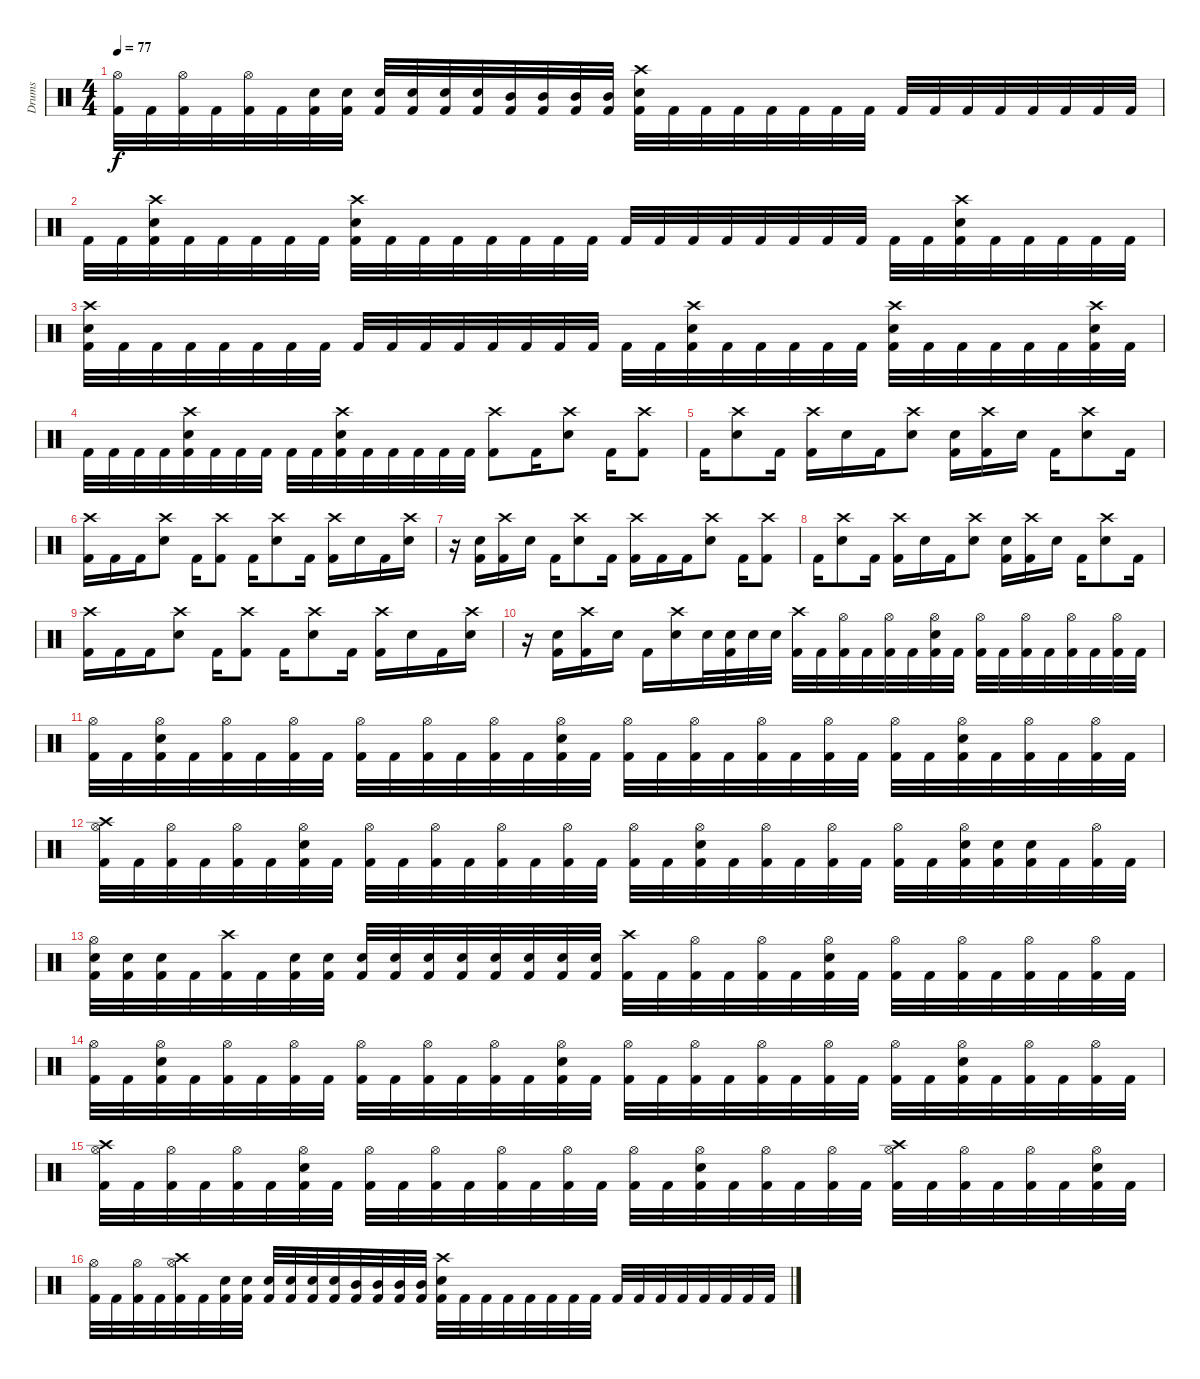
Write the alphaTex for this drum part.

\track ("Drums" "Drums") {instrument percussion}
\staff {score}
\articulation defaults
\ts (4 4)
\tempo 77
\clef neutral
\ks c
("Hi-Hat (open)" "Kick (hit) 2").32{dy f} "Kick (hit) 2".32 ("Hi-Hat (open)" "Kick (hit) 2").32 "Kick (hit) 2".32 ("Hi-Hat (open)" "Kick (hit) 2").32 "Kick (hit) 2".32 ("Snare (hit) 2" "Kick (hit) 2").32 ("Snare (hit) 2" "Kick (hit) 2").32 ("Snare (hit) 2" "Kick (hit) 2").32 ("Snare (hit) 2" "Kick (hit) 2").32 ("Snare (hit) 2" "Kick (hit) 2").32 ("Snare (hit) 2" "Kick (hit) 2").32 ("Mid Tom (hit)" "Kick (hit) 2").32 ("Mid Tom (hit)" "Kick (hit) 2").32 ("Mid Tom (hit)" "Kick (hit) 2").32 ("Mid Tom (hit)" "Kick (hit) 2").32 ("Crash high (hit)" "Snare (hit) 2" "Kick (hit) 2").32 "Kick (hit) 2".32 "Kick (hit) 2".32 "Kick (hit) 2".32 "Kick (hit) 2".32 "Kick (hit) 2".32 "Kick (hit) 2".32 "Kick (hit) 2".32 "Kick (hit) 2".32 "Kick (hit) 2".32 "Kick (hit) 2".32 "Kick (hit) 2".32 "Kick (hit) 2".32 "Kick (hit) 2".32 "Kick (hit) 2".32 "Kick (hit) 2".32 |
"Kick (hit) 2".32 "Kick (hit) 2".32 ("Crash high (hit)" "Snare (hit) 2" "Kick (hit) 2").32 "Kick (hit) 2".32 "Kick (hit) 2".32 "Kick (hit) 2".32 "Kick (hit) 2".32 "Kick (hit) 2".32 ("Crash high (hit)" "Snare (hit) 2" "Kick (hit) 2").32 "Kick (hit) 2".32 "Kick (hit) 2".32 "Kick (hit) 2".32 "Kick (hit) 2".32 "Kick (hit) 2".32 "Kick (hit) 2".32 "Kick (hit) 2".32 "Kick (hit) 2".32 "Kick (hit) 2".32 "Kick (hit) 2".32 "Kick (hit) 2".32 "Kick (hit) 2".32 "Kick (hit) 2".32 "Kick (hit) 2".32 "Kick (hit) 2".32 "Kick (hit) 2".32 "Kick (hit) 2".32 ("Crash high (hit)" "Snare (hit) 2" "Kick (hit) 2").32 "Kick (hit) 2".32 "Kick (hit) 2".32 "Kick (hit) 2".32 "Kick (hit) 2".32 "Kick (hit) 2".32 |
("Crash high (hit)" "Snare (hit) 2" "Kick (hit) 2").32 "Kick (hit) 2".32 "Kick (hit) 2".32 "Kick (hit) 2".32 "Kick (hit) 2".32 "Kick (hit) 2".32 "Kick (hit) 2".32 "Kick (hit) 2".32 "Kick (hit) 2".32 "Kick (hit) 2".32 "Kick (hit) 2".32 "Kick (hit) 2".32 "Kick (hit) 2".32 "Kick (hit) 2".32 "Kick (hit) 2".32 "Kick (hit) 2".32 "Kick (hit) 2".32 "Kick (hit) 2".32 ("Crash high (hit)" "Snare (hit) 2" "Kick (hit) 2").32 "Kick (hit) 2".32 "Kick (hit) 2".32 "Kick (hit) 2".32 "Kick (hit) 2".32 "Kick (hit) 2".32 ("Crash high (hit)" "Snare (hit) 2" "Kick (hit) 2").32 "Kick (hit) 2".32 "Kick (hit) 2".32 "Kick (hit) 2".32 "Kick (hit) 2".32 "Kick (hit) 2".32 ("Crash high (hit)" "Snare (hit) 2" "Kick (hit) 2").32 "Kick (hit) 2".32 |
"Kick (hit) 2".32 "Kick (hit) 2".32 "Kick (hit) 2".32 "Kick (hit) 2".32 ("Crash high (hit)" "Snare (hit) 2" "Kick (hit) 2").32 "Kick (hit) 2".32 "Kick (hit) 2".32 "Kick (hit) 2".32 "Kick (hit) 2".32 "Kick (hit) 2".32 ("Crash high (hit)" "Snare (hit) 2" "Kick (hit) 2").32 "Kick (hit) 2".32 "Kick (hit) 2".32 "Kick (hit) 2".32 "Kick (hit) 2".32 "Kick (hit) 2".32 ("Crash high (hit)" "Kick (hit) 2").8 "Kick (hit) 2".16 ("Crash high (hit)" "Snare (hit) 2").8 "Kick (hit) 2".16 ("Crash high (hit)" "Kick (hit) 2").8 |
"Kick (hit) 2".16 ("Crash high (hit)" "Snare (hit) 2").8 "Kick (hit) 2".16 ("Crash high (hit)" "Kick (hit) 2").16 "Snare (hit) 2".16 "Kick (hit) 2".16 ("Crash high (hit)" "Snare (hit) 2").8 ("Snare (hit) 2" "Kick (hit) 2").16 ("Crash high (hit)" "Kick (hit) 2").16 "Snare (hit) 2".16 "Kick (hit) 2".16 ("Crash high (hit)" "Snare (hit) 2").8 "Kick (hit) 2".16 |
("Crash high (hit)" "Kick (hit) 2").16 "Kick (hit) 2".16 "Kick (hit) 2".16 ("Crash high (hit)" "Snare (hit) 2").8 "Kick (hit) 2".16 ("Crash high (hit)" "Kick (hit) 2").8 "Kick (hit) 2".16 ("Crash high (hit)" "Snare (hit) 2").8 "Kick (hit) 2".16 ("Crash high (hit)" "Kick (hit) 2").16 "Snare (hit) 2".16 "Kick (hit) 2".16 ("Crash high (hit)" "Snare (hit) 2").16 |
r.16 ("Snare (hit) 2" "Kick (hit) 2").16 ("Crash high (hit)" "Kick (hit) 2").16 "Snare (hit) 2".16 "Kick (hit) 2".16 ("Crash high (hit)" "Snare (hit) 2").8 "Kick (hit) 2".16 ("Crash high (hit)" "Kick (hit) 2").16 "Kick (hit) 2".16 "Kick (hit) 2".16 ("Crash high (hit)" "Snare (hit) 2").8 "Kick (hit) 2".16 ("Crash high (hit)" "Kick (hit) 2").8 |
"Kick (hit) 2".16 ("Crash high (hit)" "Snare (hit) 2").8 "Kick (hit) 2".16 ("Crash high (hit)" "Kick (hit) 2").16 "Snare (hit) 2".16 "Kick (hit) 2".16 ("Crash high (hit)" "Snare (hit) 2").8 ("Snare (hit) 2" "Kick (hit) 2").16 ("Crash high (hit)" "Kick (hit) 2").16 "Snare (hit) 2".16 "Kick (hit) 2".16 ("Crash high (hit)" "Snare (hit) 2").8 "Kick (hit) 2".16 |
("Crash high (hit)" "Kick (hit) 2").16 "Kick (hit) 2".16 "Kick (hit) 2".16 ("Crash high (hit)" "Snare (hit) 2").8 "Kick (hit) 2".16 ("Crash high (hit)" "Kick (hit) 2").8 "Kick (hit) 2".16 ("Crash high (hit)" "Snare (hit) 2").8 "Kick (hit) 2".16 ("Crash high (hit)" "Kick (hit) 2").16 "Snare (hit) 2".16 "Kick (hit) 2".16 ("Crash high (hit)" "Snare (hit) 2").16 |
r.16 ("Snare (hit) 2" "Kick (hit) 2").16 ("Crash high (hit)" "Kick (hit) 2").16 "Snare (hit) 2".16 "Kick (hit) 2".16 ("Crash high (hit)" "Snare (hit) 2").16 "Snare (hit) 2".32 ("Snare (hit) 2" "Kick (hit) 2").32 "Snare (hit) 2".32 "Snare (hit) 2".32 ("Crash high (hit)" "Kick (hit) 2").32 "Kick (hit) 2".32 ("Hi-Hat (open)" "Kick (hit) 2").32 "Kick (hit) 2".32 ("Hi-Hat (open)" "Kick (hit) 2").32 "Kick (hit) 2".32 ("Hi-Hat (open)" "Snare (hit) 2" "Kick (hit) 2").32 "Kick (hit) 2".32 ("Hi-Hat (open)" "Kick (hit) 2").32 "Kick (hit) 2".32 ("Hi-Hat (open)" "Kick (hit) 2").32 "Kick (hit) 2".32 ("Hi-Hat (open)" "Kick (hit) 2").32 "Kick (hit) 2".32 ("Hi-Hat (open)" "Kick (hit) 2").32 "Kick (hit) 2".32 |
("Hi-Hat (open)" "Kick (hit) 2").32 "Kick (hit) 2".32 ("Hi-Hat (open)" "Snare (hit) 2" "Kick (hit) 2").32 "Kick (hit) 2".32 ("Hi-Hat (open)" "Kick (hit) 2").32 "Kick (hit) 2".32 ("Hi-Hat (open)" "Kick (hit) 2").32 "Kick (hit) 2".32 ("Hi-Hat (open)" "Kick (hit) 2").32 "Kick (hit) 2".32 ("Hi-Hat (open)" "Kick (hit) 2").32 "Kick (hit) 2".32 ("Hi-Hat (open)" "Kick (hit) 2").32 "Kick (hit) 2".32 ("Hi-Hat (open)" "Snare (hit) 2" "Kick (hit) 2").32 "Kick (hit) 2".32 ("Hi-Hat (open)" "Kick (hit) 2").32 "Kick (hit) 2".32 ("Hi-Hat (open)" "Kick (hit) 2").32 "Kick (hit) 2".32 ("Hi-Hat (open)" "Kick (hit) 2").32 "Kick (hit) 2".32 ("Hi-Hat (open)" "Kick (hit) 2").32 "Kick (hit) 2".32 ("Hi-Hat (open)" "Kick (hit) 2").32 "Kick (hit) 2".32 ("Hi-Hat (open)" "Snare (hit) 2" "Kick (hit) 2").32 "Kick (hit) 2".32 ("Hi-Hat (open)" "Kick (hit) 2").32 "Kick (hit) 2".32 ("Hi-Hat (open)" "Kick (hit) 2").32 "Kick (hit) 2".32 |
("Crash high (hit)" "Hi-Hat (open)" "Kick (hit) 2").32 "Kick (hit) 2".32 ("Hi-Hat (open)" "Kick (hit) 2").32 "Kick (hit) 2".32 ("Hi-Hat (open)" "Kick (hit) 2").32 "Kick (hit) 2".32 ("Hi-Hat (open)" "Snare (hit) 2" "Kick (hit) 2").32 "Kick (hit) 2".32 ("Hi-Hat (open)" "Kick (hit) 2").32 "Kick (hit) 2".32 ("Hi-Hat (open)" "Kick (hit) 2").32 "Kick (hit) 2".32 ("Hi-Hat (open)" "Kick (hit) 2").32 "Kick (hit) 2".32 ("Hi-Hat (open)" "Kick (hit) 2").32 "Kick (hit) 2".32 ("Hi-Hat (open)" "Kick (hit) 2").32 "Kick (hit) 2".32 ("Hi-Hat (open)" "Snare (hit) 2" "Kick (hit) 2").32 "Kick (hit) 2".32 ("Hi-Hat (open)" "Kick (hit) 2").32 "Kick (hit) 2".32 ("Hi-Hat (open)" "Kick (hit) 2").32 "Kick (hit) 2".32 ("Hi-Hat (open)" "Kick (hit) 2").32 "Kick (hit) 2".32 ("Hi-Hat (open)" "Snare (hit) 2" "Kick (hit) 2").32 ("Snare (hit) 2" "Kick (hit) 2").32 ("Snare (hit) 2" "Kick (hit) 2").32 "Kick (hit) 2".32 ("Hi-Hat (open)" "Kick (hit) 2").32 "Kick (hit) 2".32 |
("Hi-Hat (open)" "Snare (hit) 2" "Kick (hit) 2").32 ("Snare (hit) 2" "Kick (hit) 2").32 ("Snare (hit) 2" "Kick (hit) 2").32 "Kick (hit) 2".32 ("Crash high (hit)" "Kick (hit) 2").32 "Kick (hit) 2".32 ("Snare (hit) 2" "Kick (hit) 2").32 ("Snare (hit) 2" "Kick (hit) 2").32 ("Snare (hit) 2" "Kick (hit) 2").32 ("Snare (hit) 2" "Kick (hit) 2").32 ("Snare (hit) 2" "Kick (hit) 2").32 ("Snare (hit) 2" "Kick (hit) 2").32 ("Snare (hit) 2" "Kick (hit) 2").32 ("Snare (hit) 2" "Kick (hit) 2").32 ("Snare (hit) 2" "Kick (hit) 2").32 ("Snare (hit) 2" "Kick (hit) 2").32 ("Crash high (hit)" "Kick (hit) 2").32 "Kick (hit) 2".32 ("Hi-Hat (open)" "Kick (hit) 2").32 "Kick (hit) 2".32 ("Hi-Hat (open)" "Kick (hit) 2").32 "Kick (hit) 2".32 ("Hi-Hat (open)" "Snare (hit) 2" "Kick (hit) 2").32 "Kick (hit) 2".32 ("Hi-Hat (open)" "Kick (hit) 2").32 "Kick (hit) 2".32 ("Hi-Hat (open)" "Kick (hit) 2").32 "Kick (hit) 2".32 ("Hi-Hat (open)" "Kick (hit) 2").32 "Kick (hit) 2".32 ("Hi-Hat (open)" "Kick (hit) 2").32 "Kick (hit) 2".32 |
("Hi-Hat (open)" "Kick (hit) 2").32 "Kick (hit) 2".32 ("Hi-Hat (open)" "Snare (hit) 2" "Kick (hit) 2").32 "Kick (hit) 2".32 ("Hi-Hat (open)" "Kick (hit) 2").32 "Kick (hit) 2".32 ("Hi-Hat (open)" "Kick (hit) 2").32 "Kick (hit) 2".32 ("Hi-Hat (open)" "Kick (hit) 2").32 "Kick (hit) 2".32 ("Hi-Hat (open)" "Kick (hit) 2").32 "Kick (hit) 2".32 ("Hi-Hat (open)" "Kick (hit) 2").32 "Kick (hit) 2".32 ("Hi-Hat (open)" "Snare (hit) 2" "Kick (hit) 2").32 "Kick (hit) 2".32 ("Hi-Hat (open)" "Kick (hit) 2").32 "Kick (hit) 2".32 ("Hi-Hat (open)" "Kick (hit) 2").32 "Kick (hit) 2".32 ("Hi-Hat (open)" "Kick (hit) 2").32 "Kick (hit) 2".32 ("Hi-Hat (open)" "Kick (hit) 2").32 "Kick (hit) 2".32 ("Hi-Hat (open)" "Kick (hit) 2").32 "Kick (hit) 2".32 ("Hi-Hat (open)" "Snare (hit) 2" "Kick (hit) 2").32 "Kick (hit) 2".32 ("Hi-Hat (open)" "Kick (hit) 2").32 "Kick (hit) 2".32 ("Hi-Hat (open)" "Kick (hit) 2").32 "Kick (hit) 2".32 |
("Crash high (hit)" "Hi-Hat (open)" "Kick (hit) 2").32 "Kick (hit) 2".32 ("Hi-Hat (open)" "Kick (hit) 2").32 "Kick (hit) 2".32 ("Hi-Hat (open)" "Kick (hit) 2").32 "Kick (hit) 2".32 ("Hi-Hat (open)" "Snare (hit) 2" "Kick (hit) 2").32 "Kick (hit) 2".32 ("Hi-Hat (open)" "Kick (hit) 2").32 "Kick (hit) 2".32 ("Hi-Hat (open)" "Kick (hit) 2").32 "Kick (hit) 2".32 ("Hi-Hat (open)" "Kick (hit) 2").32 "Kick (hit) 2".32 ("Hi-Hat (open)" "Kick (hit) 2").32 "Kick (hit) 2".32 ("Hi-Hat (open)" "Kick (hit) 2").32 "Kick (hit) 2".32 ("Hi-Hat (open)" "Snare (hit) 2" "Kick (hit) 2").32 "Kick (hit) 2".32 ("Hi-Hat (open)" "Kick (hit) 2").32 "Kick (hit) 2".32 ("Hi-Hat (open)" "Kick (hit) 2").32 "Kick (hit) 2".32 ("Crash high (hit)" "Hi-Hat (open)" "Kick (hit) 2").32 "Kick (hit) 2".32 ("Hi-Hat (open)" "Kick (hit) 2").32 "Kick (hit) 2".32 ("Hi-Hat (open)" "Kick (hit) 2").32 "Kick (hit) 2".32 ("Hi-Hat (open)" "Snare (hit) 2" "Kick (hit) 2").32 "Kick (hit) 2".32 |
("Hi-Hat (open)" "Kick (hit) 2").32 "Kick (hit) 2".32 ("Hi-Hat (open)" "Kick (hit) 2").32 "Kick (hit) 2".32 ("Crash high (hit)" "Hi-Hat (open)" "Kick (hit) 2").32 "Kick (hit) 2".32 ("Snare (hit) 2" "Kick (hit) 2").32 ("Snare (hit) 2" "Kick (hit) 2").32 ("Snare (hit) 2" "Kick (hit) 2").32 ("Snare (hit) 2" "Kick (hit) 2").32 ("Snare (hit) 2" "Kick (hit) 2").32 ("Snare (hit) 2" "Kick (hit) 2").32 ("Mid Tom (hit)" "Kick (hit) 2").32 ("Mid Tom (hit)" "Kick (hit) 2").32 ("Mid Tom (hit)" "Kick (hit) 2").32 ("Mid Tom (hit)" "Kick (hit) 2").32 ("Crash high (hit)" "Snare (hit) 2" "Kick (hit) 2").32 "Kick (hit) 2".32 "Kick (hit) 2".32 "Kick (hit) 2".32 "Kick (hit) 2".32 "Kick (hit) 2".32 "Kick (hit) 2".32 "Kick (hit) 2".32 "Kick (hit) 2".32 "Kick (hit) 2".32 "Kick (hit) 2".32 "Kick (hit) 2".32 "Kick (hit) 2".32 "Kick (hit) 2".32 "Kick (hit) 2".32 "Kick (hit) 2".32
